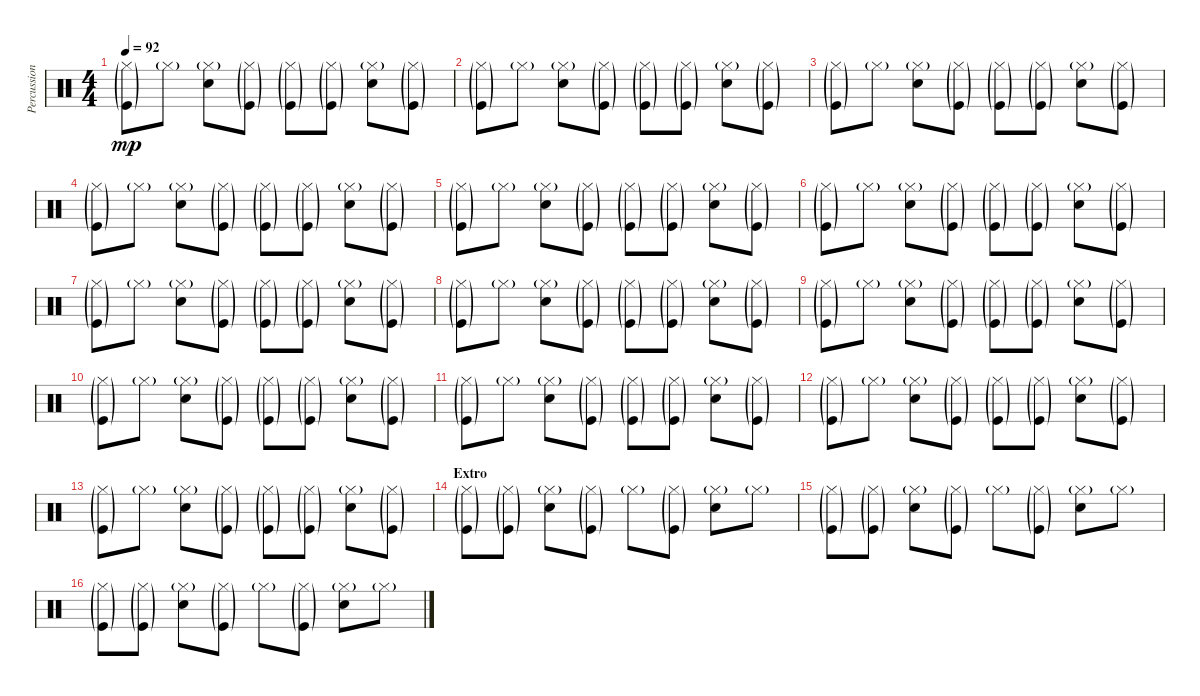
\track ("Percussions" "Percussion") {instrument percussion}
\staff {score}
\articulation defaults
\ts (4 4)
\tempo 92
\clef neutral
\ks c
("Hi-Hat (closed)"{g} "Kick (hit)"{g}).8{dy mp} "Hi-Hat (closed)"{g}.8 ("Hi-Hat (closed)"{g} "Snare (hit) 2").8 ("Hi-Hat (closed)"{g} "Kick (hit)"{g}).8 ("Hi-Hat (closed)"{g} "Kick (hit)"{g}).8 ("Hi-Hat (closed)"{g} "Kick (hit)"{g}).8 ("Hi-Hat (closed)"{g} "Snare (hit) 2").8 ("Hi-Hat (closed)"{g} "Kick (hit)"{g}).8 |
("Hi-Hat (closed)"{g} "Kick (hit)"{g}).8 "Hi-Hat (closed)"{g}.8 ("Hi-Hat (closed)"{g} "Snare (hit) 2").8 ("Hi-Hat (closed)"{g} "Kick (hit)"{g}).8 ("Hi-Hat (closed)"{g} "Kick (hit)"{g}).8 ("Hi-Hat (closed)"{g} "Kick (hit)"{g}).8 ("Hi-Hat (closed)"{g} "Snare (hit) 2").8 ("Hi-Hat (closed)"{g} "Kick (hit)"{g}).8 |
("Hi-Hat (closed)"{g} "Kick (hit)"{g}).8 "Hi-Hat (closed)"{g}.8 ("Hi-Hat (closed)"{g} "Snare (hit) 2").8 ("Hi-Hat (closed)"{g} "Kick (hit)"{g}).8 ("Hi-Hat (closed)"{g} "Kick (hit)"{g}).8 ("Hi-Hat (closed)"{g} "Kick (hit)"{g}).8 ("Hi-Hat (closed)"{g} "Snare (hit) 2").8 ("Hi-Hat (closed)"{g} "Kick (hit)"{g}).8 |
("Hi-Hat (closed)"{g} "Kick (hit)"{g}).8 "Hi-Hat (closed)"{g}.8 ("Hi-Hat (closed)"{g} "Snare (hit) 2").8 ("Hi-Hat (closed)"{g} "Kick (hit)"{g}).8 ("Hi-Hat (closed)"{g} "Kick (hit)"{g}).8 ("Hi-Hat (closed)"{g} "Kick (hit)"{g}).8 ("Hi-Hat (closed)"{g} "Snare (hit) 2").8 ("Hi-Hat (closed)"{g} "Kick (hit)"{g}).8 |
("Hi-Hat (closed)"{g} "Kick (hit)"{g}).8 "Hi-Hat (closed)"{g}.8 ("Hi-Hat (closed)"{g} "Snare (hit) 2").8 ("Hi-Hat (closed)"{g} "Kick (hit)"{g}).8 ("Hi-Hat (closed)"{g} "Kick (hit)"{g}).8 ("Hi-Hat (closed)"{g} "Kick (hit)"{g}).8 ("Hi-Hat (closed)"{g} "Snare (hit) 2").8 ("Hi-Hat (closed)"{g} "Kick (hit)"{g}).8 |
("Hi-Hat (closed)"{g} "Kick (hit)"{g}).8 "Hi-Hat (closed)"{g}.8 ("Hi-Hat (closed)"{g} "Snare (hit) 2").8 ("Hi-Hat (closed)"{g} "Kick (hit)"{g}).8 ("Hi-Hat (closed)"{g} "Kick (hit)"{g}).8 ("Hi-Hat (closed)"{g} "Kick (hit)"{g}).8 ("Hi-Hat (closed)"{g} "Snare (hit) 2").8 ("Hi-Hat (closed)"{g} "Kick (hit)"{g}).8 |
("Hi-Hat (closed)"{g} "Kick (hit)"{g}).8 "Hi-Hat (closed)"{g}.8 ("Hi-Hat (closed)"{g} "Snare (hit) 2").8 ("Hi-Hat (closed)"{g} "Kick (hit)"{g}).8 ("Hi-Hat (closed)"{g} "Kick (hit)"{g}).8 ("Hi-Hat (closed)"{g} "Kick (hit)"{g}).8 ("Hi-Hat (closed)"{g} "Snare (hit) 2").8 ("Hi-Hat (closed)"{g} "Kick (hit)"{g}).8 |
("Hi-Hat (closed)"{g} "Kick (hit)"{g}).8 "Hi-Hat (closed)"{g}.8 ("Hi-Hat (closed)"{g} "Snare (hit) 2").8 ("Hi-Hat (closed)"{g} "Kick (hit)"{g}).8 ("Hi-Hat (closed)"{g} "Kick (hit)"{g}).8 ("Hi-Hat (closed)"{g} "Kick (hit)"{g}).8 ("Hi-Hat (closed)"{g} "Snare (hit) 2").8 ("Hi-Hat (closed)"{g} "Kick (hit)"{g}).8 |
("Hi-Hat (closed)"{g} "Kick (hit)"{g}).8 "Hi-Hat (closed)"{g}.8 ("Hi-Hat (closed)"{g} "Snare (hit) 2").8 ("Hi-Hat (closed)"{g} "Kick (hit)"{g}).8 ("Hi-Hat (closed)"{g} "Kick (hit)"{g}).8 ("Hi-Hat (closed)"{g} "Kick (hit)"{g}).8 ("Hi-Hat (closed)"{g} "Snare (hit) 2").8 ("Hi-Hat (closed)"{g} "Kick (hit)"{g}).8 |
("Hi-Hat (closed)"{g} "Kick (hit)"{g}).8 "Hi-Hat (closed)"{g}.8 ("Hi-Hat (closed)"{g} "Snare (hit) 2").8 ("Hi-Hat (closed)"{g} "Kick (hit)"{g}).8 ("Hi-Hat (closed)"{g} "Kick (hit)"{g}).8 ("Hi-Hat (closed)"{g} "Kick (hit)"{g}).8 ("Hi-Hat (closed)"{g} "Snare (hit) 2").8 ("Hi-Hat (closed)"{g} "Kick (hit)"{g}).8 |
("Hi-Hat (closed)"{g} "Kick (hit)"{g}).8 "Hi-Hat (closed)"{g}.8 ("Hi-Hat (closed)"{g} "Snare (hit) 2").8 ("Hi-Hat (closed)"{g} "Kick (hit)"{g}).8 ("Hi-Hat (closed)"{g} "Kick (hit)"{g}).8 ("Hi-Hat (closed)"{g} "Kick (hit)"{g}).8 ("Hi-Hat (closed)"{g} "Snare (hit) 2").8 ("Hi-Hat (closed)"{g} "Kick (hit)"{g}).8 |
("Hi-Hat (closed)"{g} "Kick (hit)"{g}).8 "Hi-Hat (closed)"{g}.8 ("Hi-Hat (closed)"{g} "Snare (hit) 2").8 ("Hi-Hat (closed)"{g} "Kick (hit)"{g}).8 ("Hi-Hat (closed)"{g} "Kick (hit)"{g}).8 ("Hi-Hat (closed)"{g} "Kick (hit)"{g}).8 ("Hi-Hat (closed)"{g} "Snare (hit) 2").8 ("Hi-Hat (closed)"{g} "Kick (hit)"{g}).8 |
("Hi-Hat (closed)"{g} "Kick (hit)"{g}).8 "Hi-Hat (closed)"{g}.8 ("Hi-Hat (closed)"{g} "Snare (hit) 2").8 ("Hi-Hat (closed)"{g} "Kick (hit)"{g}).8 ("Hi-Hat (closed)"{g} "Kick (hit)"{g}).8 ("Hi-Hat (closed)"{g} "Kick (hit)"{g}).8 ("Hi-Hat (closed)"{g} "Snare (hit) 2").8 ("Hi-Hat (closed)"{g} "Kick (hit)"{g}).8 |
\section ("" "Extro")
("Hi-Hat (closed)"{g} "Kick (hit)"{g}).8 ("Hi-Hat (closed)"{g} "Kick (hit)"{g}).8 ("Hi-Hat (closed)"{g} "Snare (hit) 2").8 ("Hi-Hat (closed)"{g} "Kick (hit)"{g}).8 "Hi-Hat (closed)"{g}.8 ("Hi-Hat (closed)"{g} "Kick (hit)"{g}).8 ("Hi-Hat (closed)"{g} "Snare (hit) 2").8 "Hi-Hat (closed)"{g}.8 |
("Hi-Hat (closed)"{g} "Kick (hit)"{g}).8 ("Hi-Hat (closed)"{g} "Kick (hit)"{g}).8 ("Hi-Hat (closed)"{g} "Snare (hit) 2").8 ("Hi-Hat (closed)"{g} "Kick (hit)"{g}).8 "Hi-Hat (closed)"{g}.8 ("Hi-Hat (closed)"{g} "Kick (hit)"{g}).8 ("Hi-Hat (closed)"{g} "Snare (hit) 2").8 "Hi-Hat (closed)"{g}.8 |
("Hi-Hat (closed)"{g} "Kick (hit)"{g}).8 ("Hi-Hat (closed)"{g} "Kick (hit)"{g}).8 ("Hi-Hat (closed)"{g} "Snare (hit) 2").8 ("Hi-Hat (closed)"{g} "Kick (hit)"{g}).8 "Hi-Hat (closed)"{g}.8 ("Hi-Hat (closed)"{g} "Kick (hit)"{g}).8 ("Hi-Hat (closed)"{g} "Snare (hit) 2").8 "Hi-Hat (closed)"{g}.8
